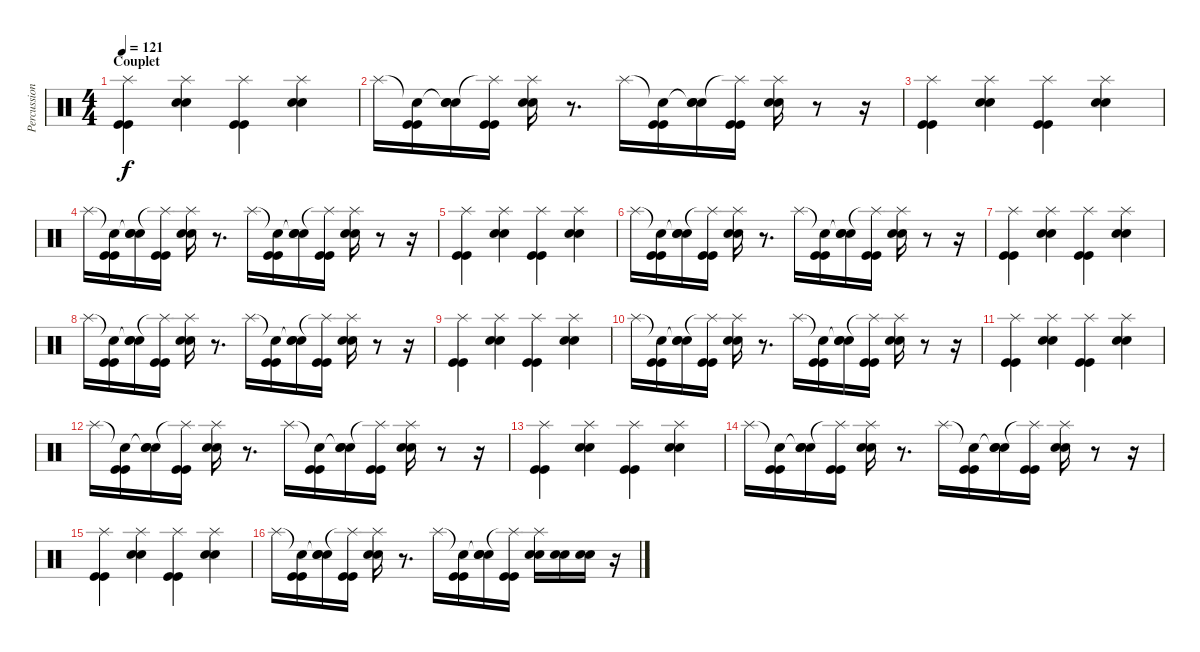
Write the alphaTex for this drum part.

\track ("Percussions" "Percussion") {instrument percussion}
\staff {score}
\articulation defaults
\ts (4 4)
\section ("" "Couplet")
\tempo 121
\clef neutral
\ks c
("Splash (hit)" "Kick (hit)" "Kick (hit)").4{dy f} ("Splash (hit)" "Electric Snare (hit)" "Electric Snare (hit)").4 ("Splash (hit)" "Kick (hit)" "Kick (hit)").4 ("Splash (hit)" "Electric Snare (hit)" "Electric Snare (hit)").4 |
"Splash (hit)".16 ("Snare (hit)"{t} "Kick (hit)" "Kick (hit)").16 ("Snare (hit)"{t} "Electric Snare (hit)" "Electric Snare (hit)").16 ("Splash (hit)"{t} "Kick (hit)" "Kick (hit)").16 ("Splash (hit)" "Electric Snare (hit)" "Electric Snare (hit)").16 r.8{d} "Splash (hit)".16 ("Snare (hit)"{t} "Kick (hit)" "Kick (hit)").16 ("Snare (hit)"{t} "Electric Snare (hit)" "Electric Snare (hit)").16 ("Splash (hit)"{t} "Kick (hit)" "Kick (hit)").16 ("Splash (hit)" "Electric Snare (hit)" "Electric Snare (hit)").16 r.8 r.16 |
("Splash (hit)" "Kick (hit)" "Kick (hit)").4 ("Splash (hit)" "Electric Snare (hit)" "Electric Snare (hit)").4 ("Splash (hit)" "Kick (hit)" "Kick (hit)").4 ("Splash (hit)" "Electric Snare (hit)" "Electric Snare (hit)").4 |
"Splash (hit)".16 ("Snare (hit)"{t} "Kick (hit)" "Kick (hit)").16 ("Snare (hit)"{t} "Electric Snare (hit)" "Electric Snare (hit)").16 ("Splash (hit)"{t} "Kick (hit)" "Kick (hit)").16 ("Splash (hit)" "Electric Snare (hit)" "Electric Snare (hit)").16 r.8{d} "Splash (hit)".16 ("Snare (hit)"{t} "Kick (hit)" "Kick (hit)").16 ("Snare (hit)"{t} "Electric Snare (hit)" "Electric Snare (hit)").16 ("Splash (hit)"{t} "Kick (hit)" "Kick (hit)").16 ("Splash (hit)" "Electric Snare (hit)" "Electric Snare (hit)").16 r.8 r.16 |
("Splash (hit)" "Kick (hit)" "Kick (hit)").4 ("Splash (hit)" "Electric Snare (hit)" "Electric Snare (hit)").4 ("Splash (hit)" "Kick (hit)" "Kick (hit)").4 ("Splash (hit)" "Electric Snare (hit)" "Electric Snare (hit)").4 |
"Splash (hit)".16 ("Snare (hit)"{t} "Kick (hit)" "Kick (hit)").16 ("Snare (hit)"{t} "Electric Snare (hit)" "Electric Snare (hit)").16 ("Splash (hit)"{t} "Kick (hit)" "Kick (hit)").16 ("Splash (hit)" "Electric Snare (hit)" "Electric Snare (hit)").16 r.8{d} "Splash (hit)".16 ("Snare (hit)"{t} "Kick (hit)" "Kick (hit)").16 ("Snare (hit)"{t} "Electric Snare (hit)" "Electric Snare (hit)").16 ("Splash (hit)"{t} "Kick (hit)" "Kick (hit)").16 ("Splash (hit)" "Electric Snare (hit)" "Electric Snare (hit)").16 r.8 r.16 |
("Splash (hit)" "Kick (hit)" "Kick (hit)").4 ("Splash (hit)" "Electric Snare (hit)" "Electric Snare (hit)").4 ("Splash (hit)" "Kick (hit)" "Kick (hit)").4 ("Splash (hit)" "Electric Snare (hit)" "Electric Snare (hit)").4 |
"Splash (hit)".16 ("Snare (hit)"{t} "Kick (hit)" "Kick (hit)").16 ("Snare (hit)"{t} "Electric Snare (hit)" "Electric Snare (hit)").16 ("Splash (hit)"{t} "Kick (hit)" "Kick (hit)").16 ("Splash (hit)" "Electric Snare (hit)" "Electric Snare (hit)").16 r.8{d} "Splash (hit)".16 ("Snare (hit)"{t} "Kick (hit)" "Kick (hit)").16 ("Snare (hit)"{t} "Electric Snare (hit)" "Electric Snare (hit)").16 ("Splash (hit)"{t} "Kick (hit)" "Kick (hit)").16 ("Splash (hit)" "Electric Snare (hit)" "Electric Snare (hit)").16 r.8 r.16 |
("Splash (hit)" "Kick (hit)" "Kick (hit)").4 ("Splash (hit)" "Electric Snare (hit)" "Electric Snare (hit)").4 ("Splash (hit)" "Kick (hit)" "Kick (hit)").4 ("Splash (hit)" "Electric Snare (hit)" "Electric Snare (hit)").4 |
"Splash (hit)".16 ("Snare (hit)"{t} "Kick (hit)" "Kick (hit)").16 ("Snare (hit)"{t} "Electric Snare (hit)" "Electric Snare (hit)").16 ("Splash (hit)"{t} "Kick (hit)" "Kick (hit)").16 ("Splash (hit)" "Electric Snare (hit)" "Electric Snare (hit)").16 r.8{d} "Splash (hit)".16 ("Snare (hit)"{t} "Kick (hit)" "Kick (hit)").16 ("Snare (hit)"{t} "Electric Snare (hit)" "Electric Snare (hit)").16 ("Splash (hit)"{t} "Kick (hit)" "Kick (hit)").16 ("Splash (hit)" "Electric Snare (hit)" "Electric Snare (hit)").16 r.8 r.16 |
("Splash (hit)" "Kick (hit)" "Kick (hit)").4 ("Splash (hit)" "Electric Snare (hit)" "Electric Snare (hit)").4 ("Splash (hit)" "Kick (hit)" "Kick (hit)").4 ("Splash (hit)" "Electric Snare (hit)" "Electric Snare (hit)").4 |
"Splash (hit)".16 ("Snare (hit)"{t} "Kick (hit)" "Kick (hit)").16 ("Snare (hit)"{t} "Electric Snare (hit)" "Electric Snare (hit)").16 ("Splash (hit)"{t} "Kick (hit)" "Kick (hit)").16 ("Splash (hit)" "Electric Snare (hit)" "Electric Snare (hit)").16 r.8{d} "Splash (hit)".16 ("Snare (hit)"{t} "Kick (hit)" "Kick (hit)").16 ("Snare (hit)"{t} "Electric Snare (hit)" "Electric Snare (hit)").16 ("Splash (hit)"{t} "Kick (hit)" "Kick (hit)").16 ("Splash (hit)" "Electric Snare (hit)" "Electric Snare (hit)").16 r.8 r.16 |
("Splash (hit)" "Kick (hit)" "Kick (hit)").4 ("Splash (hit)" "Electric Snare (hit)" "Electric Snare (hit)").4 ("Splash (hit)" "Kick (hit)" "Kick (hit)").4 ("Splash (hit)" "Electric Snare (hit)" "Electric Snare (hit)").4 |
"Splash (hit)".16 ("Snare (hit)"{t} "Kick (hit)" "Kick (hit)").16 ("Snare (hit)"{t} "Electric Snare (hit)" "Electric Snare (hit)").16 ("Splash (hit)"{t} "Kick (hit)" "Kick (hit)").16 ("Splash (hit)" "Electric Snare (hit)" "Electric Snare (hit)").16 r.8{d} "Splash (hit)".16 ("Snare (hit)"{t} "Kick (hit)" "Kick (hit)").16 ("Snare (hit)"{t} "Electric Snare (hit)" "Electric Snare (hit)").16 ("Splash (hit)"{t} "Kick (hit)" "Kick (hit)").16 ("Splash (hit)" "Electric Snare (hit)" "Electric Snare (hit)").16 r.8 r.16 |
("Splash (hit)" "Kick (hit)" "Kick (hit)").4 ("Splash (hit)" "Electric Snare (hit)" "Electric Snare (hit)").4 ("Splash (hit)" "Kick (hit)" "Kick (hit)").4 ("Splash (hit)" "Electric Snare (hit)" "Electric Snare (hit)").4 |
"Splash (hit)".16 ("Snare (hit)"{t} "Kick (hit)" "Kick (hit)").16 ("Snare (hit)"{t} "Electric Snare (hit)" "Electric Snare (hit)").16 ("Splash (hit)"{t} "Kick (hit)" "Kick (hit)").16 ("Splash (hit)" "Electric Snare (hit)" "Electric Snare (hit)").16 r.8{d} "Splash (hit)".16 ("Snare (hit)"{t} "Kick (hit)" "Kick (hit)").16 ("Snare (hit)"{t} "Electric Snare (hit)" "Electric Snare (hit)").16 ("Splash (hit)"{t} "Kick (hit)" "Kick (hit)").16 ("Splash (hit)" "Electric Snare (hit)" "Electric Snare (hit)").16 ("Electric Snare (hit)" "Electric Snare (hit)").16 ("Electric Snare (hit)" "Electric Snare (hit)").16 r.16
